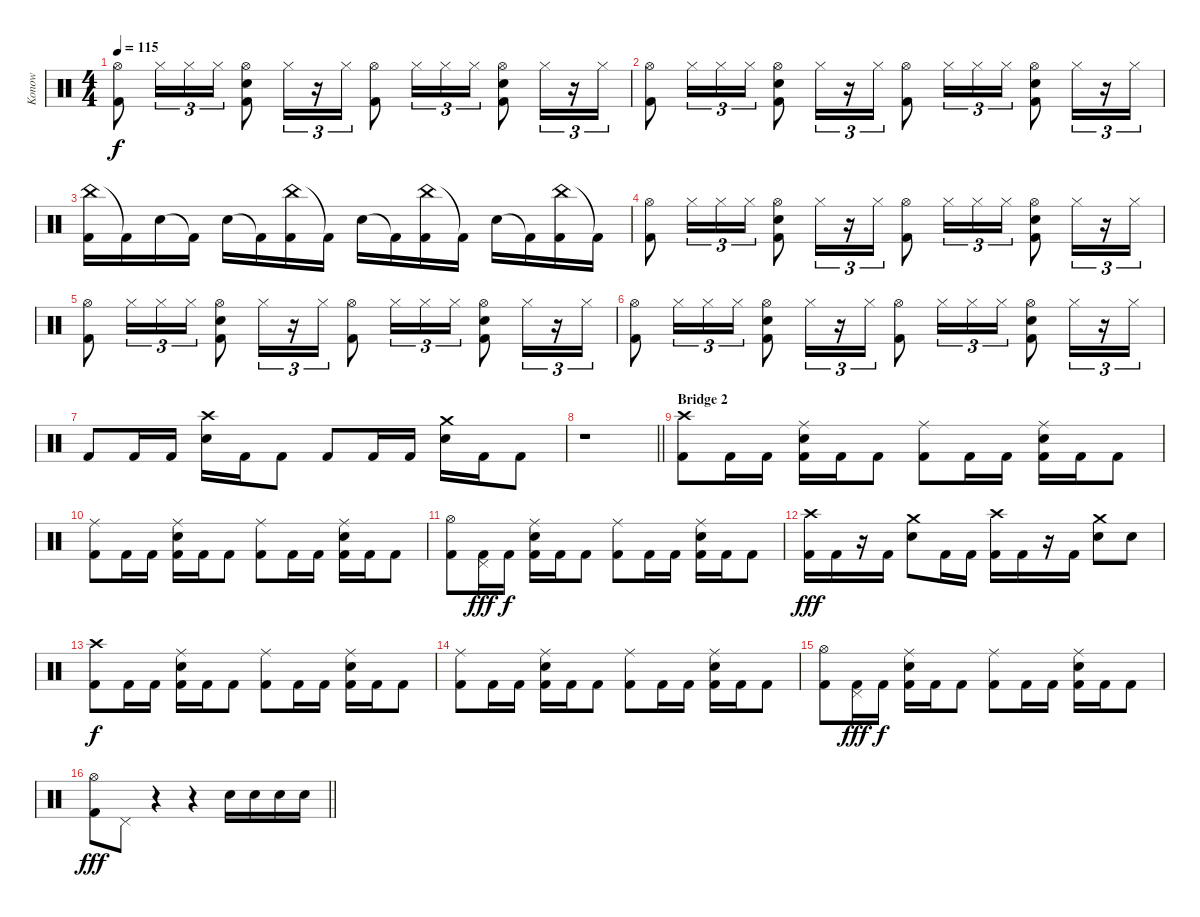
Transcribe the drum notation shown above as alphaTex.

\track ("Konow" "Konow") {instrument percussion}
\staff {score}
\articulation defaults
\ts (4 4)
\tempo 115
\clef neutral
\ks c
("Hi-Hat (open)" "Kick (hit) 2").8{dy f} "Hi-Hat (closed)".16{tu (3 2)} "Hi-Hat (closed)".16{tu (3 2)} "Hi-Hat (closed)".16{tu (3 2)} ("Electric Snare (hit)" "Hi-Hat (open)" "Kick (hit) 2").8 "Hi-Hat (closed)".16{tu (3 2)} r.16{tu (3 2)} "Hi-Hat (closed)".16{tu (3 2)} ("Hi-Hat (open)" "Kick (hit) 2").8 "Hi-Hat (closed)".16{tu (3 2)} "Hi-Hat (closed)".16{tu (3 2)} "Hi-Hat (closed)".16{tu (3 2)} ("Electric Snare (hit)" "Hi-Hat (open)" "Kick (hit) 2").8 "Hi-Hat (closed)".16{tu (3 2)} r.16{tu (3 2)} "Hi-Hat (closed)".16{tu (3 2)} |
("Hi-Hat (open)" "Kick (hit) 2").8 "Hi-Hat (closed)".16{tu (3 2)} "Hi-Hat (closed)".16{tu (3 2)} "Hi-Hat (closed)".16{tu (3 2)} ("Electric Snare (hit)" "Hi-Hat (open)" "Kick (hit) 2").8 "Hi-Hat (closed)".16{tu (3 2)} r.16{tu (3 2)} "Hi-Hat (closed)".16{tu (3 2)} ("Hi-Hat (open)" "Kick (hit) 2").8 "Hi-Hat (closed)".16{tu (3 2)} "Hi-Hat (closed)".16{tu (3 2)} "Hi-Hat (closed)".16{tu (3 2)} ("Electric Snare (hit)" "Hi-Hat (open)" "Kick (hit) 2").8 "Hi-Hat (closed)".16{tu (3 2)} r.16{tu (3 2)} "Hi-Hat (closed)".16{tu (3 2)} |
("China (hit)" "Kick (hit) 2").16 "Kick (hit) 2"{t}.16 "Electric Snare (hit)".16 "Kick (hit) 2"{t}.16 "Electric Snare (hit)".16 "Kick (hit) 2"{t}.16 ("China (hit)" "Kick (hit) 2").16 "Kick (hit) 2"{t}.16 "Electric Snare (hit)".16 "Kick (hit) 2"{t}.16 ("China (hit)" "Kick (hit) 2").16 "Kick (hit) 2"{t}.16 "Electric Snare (hit)".16 "Kick (hit) 2"{t}.16 ("China (hit)" "Kick (hit) 2").16 "Kick (hit) 2"{t}.16 |
("Hi-Hat (open)" "Kick (hit) 2").8 "Hi-Hat (closed)".16{tu (3 2)} "Hi-Hat (closed)".16{tu (3 2)} "Hi-Hat (closed)".16{tu (3 2)} ("Electric Snare (hit)" "Hi-Hat (open)" "Kick (hit) 2").8 "Hi-Hat (closed)".16{tu (3 2)} r.16{tu (3 2)} "Hi-Hat (closed)".16{tu (3 2)} ("Hi-Hat (open)" "Kick (hit) 2").8 "Hi-Hat (closed)".16{tu (3 2)} "Hi-Hat (closed)".16{tu (3 2)} "Hi-Hat (closed)".16{tu (3 2)} ("Electric Snare (hit)" "Hi-Hat (open)" "Kick (hit) 2").8 "Hi-Hat (closed)".16{tu (3 2)} r.16{tu (3 2)} "Hi-Hat (closed)".16{tu (3 2)} |
("Hi-Hat (open)" "Kick (hit) 2").8 "Hi-Hat (closed)".16{tu (3 2)} "Hi-Hat (closed)".16{tu (3 2)} "Hi-Hat (closed)".16{tu (3 2)} ("Electric Snare (hit)" "Hi-Hat (open)" "Kick (hit) 2").8 "Hi-Hat (closed)".16{tu (3 2)} r.16{tu (3 2)} "Hi-Hat (closed)".16{tu (3 2)} ("Hi-Hat (open)" "Kick (hit) 2").8 "Hi-Hat (closed)".16{tu (3 2)} "Hi-Hat (closed)".16{tu (3 2)} "Hi-Hat (closed)".16{tu (3 2)} ("Electric Snare (hit)" "Hi-Hat (open)" "Kick (hit) 2").8 "Hi-Hat (closed)".16{tu (3 2)} r.16{tu (3 2)} "Hi-Hat (closed)".16{tu (3 2)} |
("Hi-Hat (open)" "Kick (hit) 2").8 "Hi-Hat (closed)".16{tu (3 2)} "Hi-Hat (closed)".16{tu (3 2)} "Hi-Hat (closed)".16{tu (3 2)} ("Electric Snare (hit)" "Hi-Hat (open)" "Kick (hit) 2").8 "Hi-Hat (closed)".16{tu (3 2)} r.16{tu (3 2)} "Hi-Hat (closed)".16{tu (3 2)} ("Hi-Hat (open)" "Kick (hit) 2").8 "Hi-Hat (closed)".16{tu (3 2)} "Hi-Hat (closed)".16{tu (3 2)} "Hi-Hat (closed)".16{tu (3 2)} ("Electric Snare (hit)" "Hi-Hat (open)" "Kick (hit) 2").8 "Hi-Hat (closed)".16{tu (3 2)} r.16{tu (3 2)} "Hi-Hat (closed)".16{tu (3 2)} |
"Kick (hit) 2".8 "Kick (hit) 2".16 "Kick (hit) 2".16 ("Crash high (hit)" "Electric Snare (hit)").16 "Kick (hit) 2".16 "Kick (hit) 2".8 "Kick (hit) 2".8 "Kick (hit) 2".16 "Kick (hit) 2".16 ("Crash medium (hit)" "Electric Snare (hit)").16 "Kick (hit) 2".16 "Kick (hit) 2".8 |
\barLineRight lightlight
r.1 |
\section ("" "Bridge 2")
("Crash high (hit)" "Kick (hit) 2").8 "Kick (hit) 2".16 "Kick (hit) 2".16 ("Electric Snare (hit)" "Ride (middle)" "Kick (hit) 2").16 "Kick (hit) 2".16 "Kick (hit) 2".8 ("Ride (middle)" "Kick (hit) 2").8 "Kick (hit) 2".16 "Kick (hit) 2".16 ("Electric Snare (hit)" "Ride (middle)" "Kick (hit) 2").16 "Kick (hit) 2".16 "Kick (hit) 2".8 |
("Ride (middle)" "Kick (hit) 2").8 "Kick (hit) 2".16 "Kick (hit) 2".16 ("Electric Snare (hit)" "Ride (middle)" "Kick (hit) 2").16 "Kick (hit) 2".16 "Kick (hit) 2".8 ("Ride (middle)" "Kick (hit) 2").8 "Kick (hit) 2".16 "Kick (hit) 2".16 ("Electric Snare (hit)" "Ride (middle)" "Kick (hit) 2").16 "Kick (hit) 2".16 "Kick (hit) 2".8 |
("Hi-Hat (open)" "Kick (hit) 2").8 ("Pedal Hi-Hat (hit)" "Kick (hit) 2").16{dy fff} "Kick (hit) 2".16{dy f} ("Electric Snare (hit)" "Ride (middle)" "Kick (hit) 2").16 "Kick (hit) 2".16 "Kick (hit) 2".8 ("Ride (middle)" "Kick (hit) 2").8 "Kick (hit) 2".16 "Kick (hit) 2".16 ("Electric Snare (hit)" "Ride (middle)" "Kick (hit) 2").16 "Kick (hit) 2".16 "Kick (hit) 2".8 |
("Crash high (hit)" "Kick (hit) 2").16{dy fff} "Kick (hit) 2".16 r.16 "Kick (hit) 2".16 ("Crash medium (hit)" "Electric Snare (hit)").8 "Kick (hit) 2".16 "Kick (hit) 2".16 ("Crash high (hit)" "Kick (hit) 2").16 "Kick (hit) 2".16 r.16 "Kick (hit) 2".16 ("Crash medium (hit)" "Electric Snare (hit)").8 "Electric Snare (hit)".8 |
("Crash high (hit)" "Kick (hit) 2").8{dy f} "Kick (hit) 2".16 "Kick (hit) 2".16 ("Electric Snare (hit)" "Ride (middle)" "Kick (hit) 2").16 "Kick (hit) 2".16 "Kick (hit) 2".8 ("Ride (middle)" "Kick (hit) 2").8 "Kick (hit) 2".16 "Kick (hit) 2".16 ("Electric Snare (hit)" "Ride (middle)" "Kick (hit) 2").16 "Kick (hit) 2".16 "Kick (hit) 2".8 |
("Ride (middle)" "Kick (hit) 2").8 "Kick (hit) 2".16 "Kick (hit) 2".16 ("Electric Snare (hit)" "Ride (middle)" "Kick (hit) 2").16 "Kick (hit) 2".16 "Kick (hit) 2".8 ("Ride (middle)" "Kick (hit) 2").8 "Kick (hit) 2".16 "Kick (hit) 2".16 ("Electric Snare (hit)" "Ride (middle)" "Kick (hit) 2").16 "Kick (hit) 2".16 "Kick (hit) 2".8 |
("Hi-Hat (open)" "Kick (hit) 2").8 ("Pedal Hi-Hat (hit)" "Kick (hit) 2").16{dy fff} "Kick (hit) 2".16{dy f} ("Electric Snare (hit)" "Ride (middle)" "Kick (hit) 2").16 "Kick (hit) 2".16 "Kick (hit) 2".8 ("Ride (middle)" "Kick (hit) 2").8 "Kick (hit) 2".16 "Kick (hit) 2".16 ("Electric Snare (hit)" "Ride (middle)" "Kick (hit) 2").16 "Kick (hit) 2".16 "Kick (hit) 2".8 |
\barLineRight lightlight
("Hi-Hat (open)" "Kick (hit) 2").8{dy fff} "Pedal Hi-Hat (hit)".8 r.4 r.4 "Electric Snare (hit)".16 "Electric Snare (hit)".16 "Electric Snare (hit)".16 "Electric Snare (hit)".16
